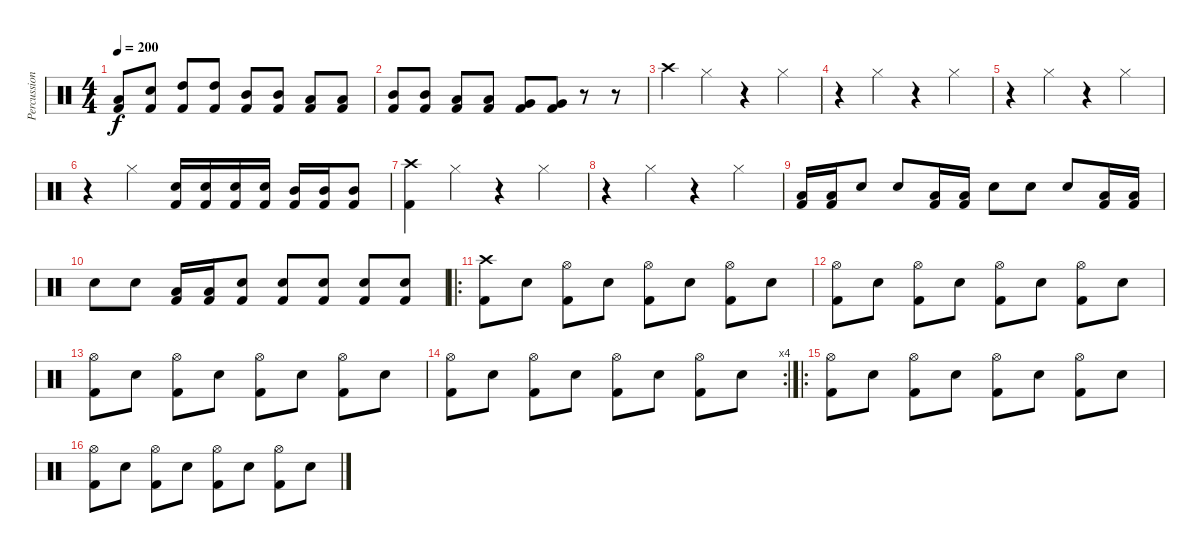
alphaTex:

\track ("Percussion" "Percussion") {instrument percussion}
\staff {score}
\articulation defaults
\ts (4 4)
\tempo 200
\clef neutral
\ks c
("Low Tom (hit)" "Kick (hit) 2").8{dy f} ("Electric Snare (hit)" "Kick (hit) 2").8 ("High Tom (hit)" "Kick (hit) 2").8 ("High Tom (hit)" "Kick (hit) 2").8 ("Mid Tom (hit)" "Kick (hit) 2").8 ("Mid Tom (hit)" "Kick (hit) 2").8 ("Low Tom (hit)" "Kick (hit) 2").8 ("Low Tom (hit)" "Kick (hit) 2").8 |
("Mid Tom (hit)" "Kick (hit) 2").8 ("Mid Tom (hit)" "Kick (hit) 2").8 ("Low Tom (hit)" "Kick (hit) 2").8 ("Low Tom (hit)" "Kick (hit) 2").8 ("Very Low Tom (hit)" "Kick (hit) 2").8 ("Very Low Tom (hit)" "Kick (hit) 2").8 r.8 r.8 |
"Crash high (hit)".4 "Hi-Hat (closed)".4 r.4 "Hi-Hat (closed)".4 |
r.4 "Hi-Hat (closed)".4 r.4 "Hi-Hat (closed)".4 |
r.4 "Hi-Hat (closed)".4 r.4 "Hi-Hat (closed)".4 |
r.4 "Hi-Hat (closed)".4 ("Electric Snare (hit)" "Kick (hit) 2").16 ("Electric Snare (hit)" "Kick (hit) 2").16 ("Electric Snare (hit)" "Kick (hit) 2").16 ("Electric Snare (hit)" "Kick (hit) 2").16 ("Mid Tom (hit)" "Kick (hit) 2").16 ("Mid Tom (hit)" "Kick (hit) 2").16 ("Mid Tom (hit)" "Kick (hit) 2").8 |
("Crash high (hit)" "Kick (hit) 2").4 "Hi-Hat (closed)".4 r.4 "Hi-Hat (closed)".4 |
r.4 "Hi-Hat (closed)".4 r.4 "Hi-Hat (closed)".4 |
("Low Floor Tom (hit)" "Kick (hit) 2").16 ("Low Floor Tom (hit)" "Kick (hit) 2").16 "Electric Snare (hit)".8 "Electric Snare (hit)".8 ("Low Floor Tom (hit)" "Kick (hit) 2").16 ("Low Floor Tom (hit)" "Kick (hit) 2").16 "Electric Snare (hit)".8 "Electric Snare (hit)".8 "Electric Snare (hit)".8 ("Low Floor Tom (hit)" "Kick (hit) 2").16 ("Low Floor Tom (hit)" "Kick (hit) 2").16 |
"Electric Snare (hit)".8 "Electric Snare (hit)".8 ("Low Floor Tom (hit)" "Kick (hit) 2").16 ("Low Floor Tom (hit)" "Kick (hit) 2").16 ("Electric Snare (hit)" "Kick (hit) 2").8 ("Electric Snare (hit)" "Kick (hit) 2").8 ("Electric Snare (hit)" "Kick (hit) 2").8 ("Electric Snare (hit)" "Kick (hit) 2").8 ("Electric Snare (hit)" "Kick (hit) 2").8 |
\ro
("Crash high (hit)" "Kick (hit) 2").8 "Electric Snare (hit)".8 ("Hi-Hat (open)" "Kick (hit) 2").8 "Electric Snare (hit)".8 ("Hi-Hat (open)" "Kick (hit) 2").8 "Electric Snare (hit)".8 ("Hi-Hat (open)" "Kick (hit) 2").8 "Electric Snare (hit)".8 |
("Hi-Hat (open)" "Kick (hit) 2").8 "Electric Snare (hit)".8 ("Hi-Hat (open)" "Kick (hit) 2").8 "Electric Snare (hit)".8 ("Hi-Hat (open)" "Kick (hit) 2").8 "Electric Snare (hit)".8 ("Hi-Hat (open)" "Kick (hit) 2").8 "Electric Snare (hit)".8 |
("Hi-Hat (open)" "Kick (hit) 2").8 "Electric Snare (hit)".8 ("Hi-Hat (open)" "Kick (hit) 2").8 "Electric Snare (hit)".8 ("Hi-Hat (open)" "Kick (hit) 2").8 "Electric Snare (hit)".8 ("Hi-Hat (open)" "Kick (hit) 2").8 "Electric Snare (hit)".8 |
\rc 4
("Hi-Hat (open)" "Kick (hit) 2").8 "Electric Snare (hit)".8 ("Hi-Hat (open)" "Kick (hit) 2").8 "Electric Snare (hit)".8 ("Hi-Hat (open)" "Kick (hit) 2").8 "Electric Snare (hit)".8 ("Hi-Hat (open)" "Kick (hit) 2").8 "Electric Snare (hit)".8 |
\ro
("Hi-Hat (open)" "Kick (hit) 2").8 "Electric Snare (hit)".8 ("Hi-Hat (open)" "Kick (hit) 2").8 "Electric Snare (hit)".8 ("Hi-Hat (open)" "Kick (hit) 2").8 "Electric Snare (hit)".8 ("Hi-Hat (open)" "Kick (hit) 2").8 "Electric Snare (hit)".8 |
("Hi-Hat (open)" "Kick (hit) 2").8 "Electric Snare (hit)".8 ("Hi-Hat (open)" "Kick (hit) 2").8 "Electric Snare (hit)".8 ("Hi-Hat (open)" "Kick (hit) 2").8 "Electric Snare (hit)".8 ("Hi-Hat (open)" "Kick (hit) 2").8 "Electric Snare (hit)".8
